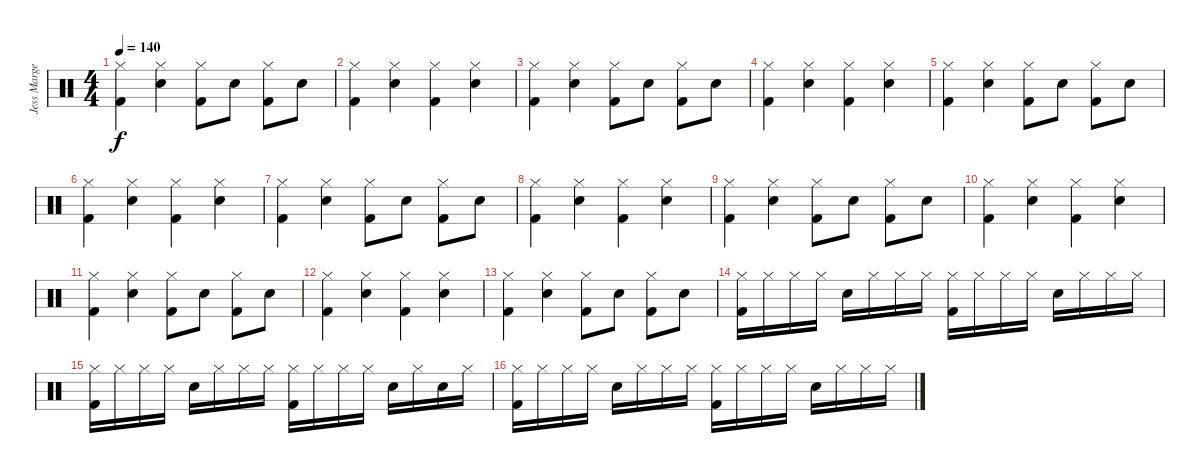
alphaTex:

\track ("Jess Margera" "Jess Marge") {instrument percussion}
\staff {score}
\articulation defaults
\ts (4 4)
\tempo 140
\clef neutral
\ks c
("Hi-Hat (closed)" "Kick (hit) 2").4{dy f} ("Hi-Hat (closed)" "Electric Snare (hit)").4 ("Hi-Hat (closed)" "Kick (hit) 2").8 "Electric Snare (hit)".8 ("Hi-Hat (closed)" "Kick (hit) 2").8 "Electric Snare (hit)".8 |
("Hi-Hat (closed)" "Kick (hit) 2").4 ("Hi-Hat (closed)" "Electric Snare (hit)").4 ("Hi-Hat (closed)" "Kick (hit) 2").4 ("Hi-Hat (closed)" "Electric Snare (hit)").4 |
("Hi-Hat (closed)" "Kick (hit) 2").4 ("Hi-Hat (closed)" "Electric Snare (hit)").4 ("Hi-Hat (closed)" "Kick (hit) 2").8 "Electric Snare (hit)".8 ("Hi-Hat (closed)" "Kick (hit) 2").8 "Electric Snare (hit)".8 |
("Hi-Hat (closed)" "Kick (hit) 2").4 ("Hi-Hat (closed)" "Electric Snare (hit)").4 ("Hi-Hat (closed)" "Kick (hit) 2").4 ("Hi-Hat (closed)" "Electric Snare (hit)").4 |
("Hi-Hat (closed)" "Kick (hit) 2").4 ("Hi-Hat (closed)" "Electric Snare (hit)").4 ("Hi-Hat (closed)" "Kick (hit) 2").8 "Electric Snare (hit)".8 ("Hi-Hat (closed)" "Kick (hit) 2").8 "Electric Snare (hit)".8 |
("Hi-Hat (closed)" "Kick (hit) 2").4 ("Hi-Hat (closed)" "Electric Snare (hit)").4 ("Hi-Hat (closed)" "Kick (hit) 2").4 ("Hi-Hat (closed)" "Electric Snare (hit)").4 |
("Hi-Hat (closed)" "Kick (hit) 2").4 ("Hi-Hat (closed)" "Electric Snare (hit)").4 ("Hi-Hat (closed)" "Kick (hit) 2").8 "Electric Snare (hit)".8 ("Hi-Hat (closed)" "Kick (hit) 2").8 "Electric Snare (hit)".8 |
("Hi-Hat (closed)" "Kick (hit) 2").4 ("Hi-Hat (closed)" "Electric Snare (hit)").4 ("Hi-Hat (closed)" "Kick (hit) 2").4 ("Hi-Hat (closed)" "Electric Snare (hit)").4 |
("Hi-Hat (closed)" "Kick (hit) 2").4 ("Hi-Hat (closed)" "Electric Snare (hit)").4 ("Hi-Hat (closed)" "Kick (hit) 2").8 "Electric Snare (hit)".8 ("Hi-Hat (closed)" "Kick (hit) 2").8 "Electric Snare (hit)".8 |
("Hi-Hat (closed)" "Kick (hit) 2").4 ("Hi-Hat (closed)" "Electric Snare (hit)").4 ("Hi-Hat (closed)" "Kick (hit) 2").4 ("Hi-Hat (closed)" "Electric Snare (hit)").4 |
("Hi-Hat (closed)" "Kick (hit) 2").4 ("Hi-Hat (closed)" "Electric Snare (hit)").4 ("Hi-Hat (closed)" "Kick (hit) 2").8 "Electric Snare (hit)".8 ("Hi-Hat (closed)" "Kick (hit) 2").8 "Electric Snare (hit)".8 |
("Hi-Hat (closed)" "Kick (hit) 2").4 ("Hi-Hat (closed)" "Electric Snare (hit)").4 ("Hi-Hat (closed)" "Kick (hit) 2").4 ("Hi-Hat (closed)" "Electric Snare (hit)").4 |
("Hi-Hat (closed)" "Kick (hit) 2").4 ("Hi-Hat (closed)" "Electric Snare (hit)").4 ("Hi-Hat (closed)" "Kick (hit) 2").8 "Electric Snare (hit)".8 ("Hi-Hat (closed)" "Kick (hit) 2").8 "Electric Snare (hit)".8 |
("Hi-Hat (closed)" "Kick (hit) 2").16 "Hi-Hat (closed)".16 "Hi-Hat (closed)".16 "Hi-Hat (closed)".16 "Electric Snare (hit)".16 "Hi-Hat (closed)".16 "Hi-Hat (closed)".16 "Hi-Hat (closed)".16 ("Hi-Hat (closed)" "Kick (hit) 2").16 "Hi-Hat (closed)".16 "Hi-Hat (closed)".16 "Hi-Hat (closed)".16 "Electric Snare (hit)".16 "Hi-Hat (closed)".16 "Hi-Hat (closed)".16 "Hi-Hat (closed)".16 |
("Hi-Hat (closed)" "Kick (hit) 2").16 "Hi-Hat (closed)".16 "Hi-Hat (closed)".16 "Hi-Hat (closed)".16 "Electric Snare (hit)".16 "Hi-Hat (closed)".16 "Hi-Hat (closed)".16 "Hi-Hat (closed)".16 ("Hi-Hat (closed)" "Kick (hit) 2").16 "Hi-Hat (closed)".16 "Hi-Hat (closed)".16 "Hi-Hat (closed)".16 "Electric Snare (hit)".16 "Hi-Hat (closed)".16 "Electric Snare (hit)".16 "Hi-Hat (closed)".16 |
("Hi-Hat (closed)" "Kick (hit) 2").16 "Hi-Hat (closed)".16 "Hi-Hat (closed)".16 "Hi-Hat (closed)".16 "Electric Snare (hit)".16 "Hi-Hat (closed)".16 "Hi-Hat (closed)".16 "Hi-Hat (closed)".16 ("Hi-Hat (closed)" "Kick (hit) 2").16 "Hi-Hat (closed)".16 "Hi-Hat (closed)".16 "Hi-Hat (closed)".16 "Electric Snare (hit)".16 "Hi-Hat (closed)".16 "Hi-Hat (closed)".16 "Hi-Hat (closed)".16
